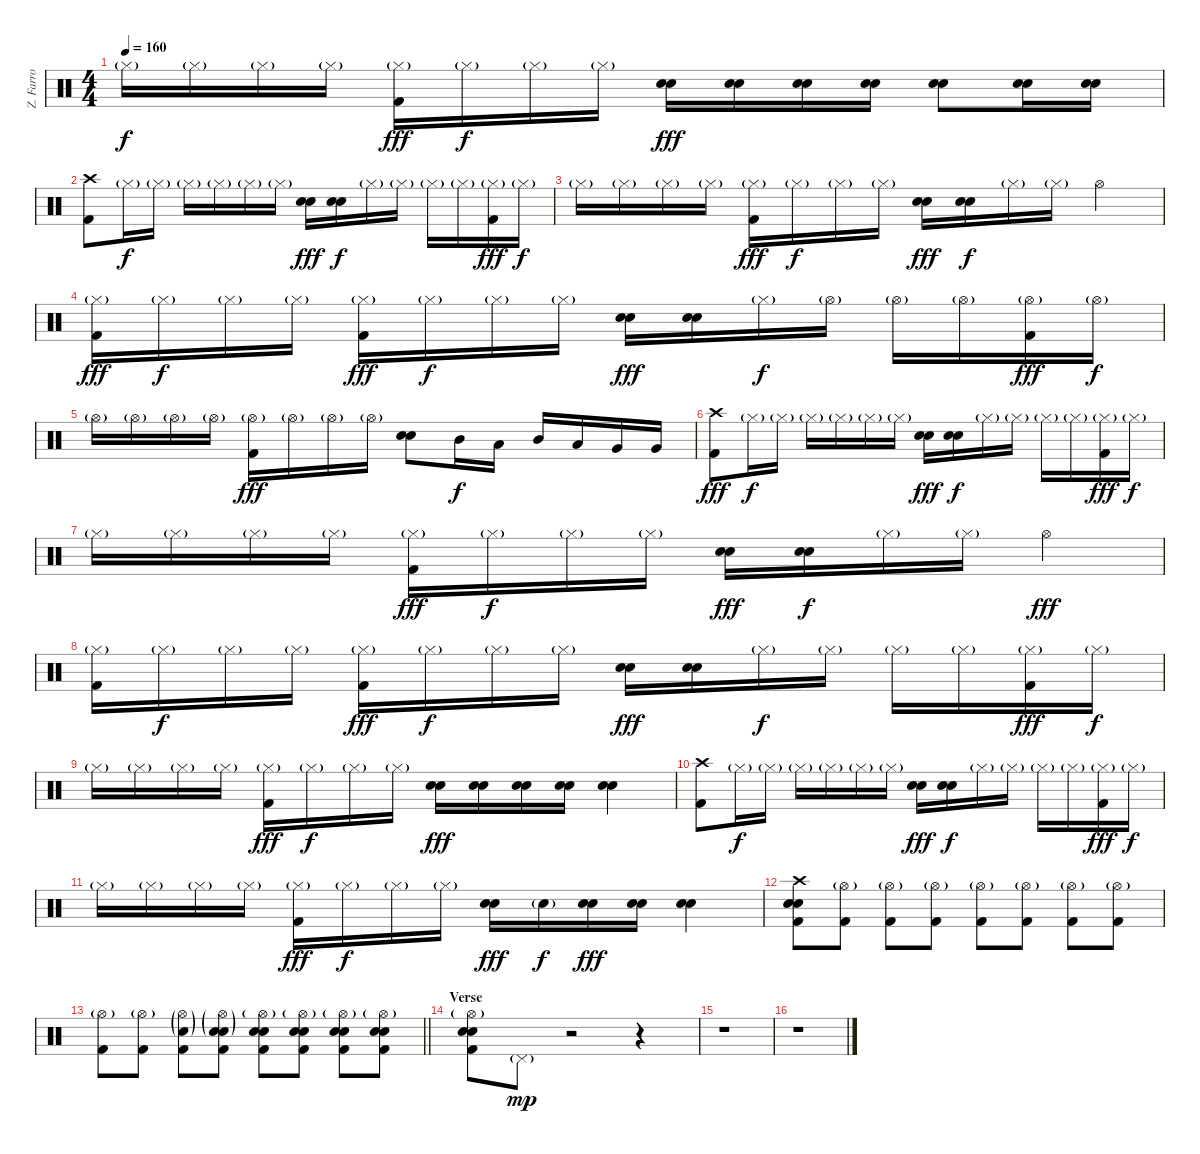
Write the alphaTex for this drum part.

\track ("Z. Farro" "Z. Farro") {instrument percussion}
\staff {score}
\articulation defaults
\ts (4 4)
\tempo 160
\clef neutral
\ks c "Hi-Hat (closed)"{g}.16{dy f} "Hi-Hat (closed)"{g}.16 "Hi-Hat (closed)"{g}.16 "Hi-Hat (closed)"{g}.16
("Hi-Hat (closed)"{g} "Kick (hit) 2").16{dy fff} "Hi-Hat (closed)"{g}.16{dy f} "Hi-Hat (closed)"{g}.16 "Hi-Hat (closed)"{g}.16 ("Electric Snare (hit)" "Electric Snare (hit)").16{dy fff} ("Electric Snare (hit)" "Electric Snare (hit)").16 ("Electric Snare (hit)" "Electric Snare (hit)").16 ("Electric Snare (hit)" "Electric Snare (hit)").16 ("Electric Snare (hit)" "Electric Snare (hit)").8 ("Electric Snare (hit)" "Electric Snare (hit)").16 ("Electric Snare (hit)" "Electric Snare (hit)").16 |
("Crash high (hit)" "Kick (hit) 2").8 "Hi-Hat (closed)"{g}.16{dy f} "Hi-Hat (closed)"{g}.16 "Hi-Hat (closed)"{g}.16 "Hi-Hat (closed)"{g}.16 "Hi-Hat (closed)"{g}.16 "Hi-Hat (closed)"{g}.16 ("Electric Snare (hit)" "Electric Snare (hit)").16{dy fff} ("Electric Snare (hit)" "Electric Snare (hit)").16{dy f} "Hi-Hat (closed)"{g}.16 "Hi-Hat (closed)"{g}.16 "Hi-Hat (closed)"{g}.16 "Hi-Hat (closed)"{g}.16 ("Hi-Hat (closed)"{g} "Kick (hit) 2").16{dy fff} "Hi-Hat (closed)"{g}.16{dy f} |
"Hi-Hat (closed)"{g}.16 "Hi-Hat (closed)"{g}.16 "Hi-Hat (closed)"{g}.16 "Hi-Hat (closed)"{g}.16 ("Hi-Hat (closed)"{g} "Kick (hit) 2").16{dy fff} "Hi-Hat (closed)"{g}.16{dy f} "Hi-Hat (closed)"{g}.16 "Hi-Hat (closed)"{g}.16 ("Electric Snare (hit)" "Electric Snare (hit)").16{dy fff} ("Electric Snare (hit)" "Electric Snare (hit)").16{dy f} "Hi-Hat (closed)"{g}.16 "Hi-Hat (closed)"{g}.16 "Hi-Hat (open)".4 |
("Hi-Hat (closed)"{g} "Kick (hit) 2").16{dy fff} "Hi-Hat (closed)"{g}.16{dy f} "Hi-Hat (closed)"{g}.16 "Hi-Hat (closed)"{g}.16 ("Hi-Hat (closed)"{g} "Kick (hit) 2").16{dy fff} "Hi-Hat (closed)"{g}.16{dy f} "Hi-Hat (closed)"{g}.16 "Hi-Hat (closed)"{g}.16 ("Electric Snare (hit)" "Electric Snare (hit)").16{dy fff} ("Electric Snare (hit)" "Electric Snare (hit)").16 "Hi-Hat (closed)"{g}.16{dy f} "Hi-Hat (open)"{g}.16 "Hi-Hat (open)"{g}.16 "Hi-Hat (open)"{g}.16 ("Hi-Hat (open)"{g} "Kick (hit) 2").16{dy fff} "Hi-Hat (open)"{g}.16{dy f} |
"Hi-Hat (open)"{g}.16 "Hi-Hat (open)"{g}.16 "Hi-Hat (open)"{g}.16 "Hi-Hat (open)"{g}.16 ("Hi-Hat (open)"{g} "Kick (hit) 2").16{dy fff} "Hi-Hat (open)"{g}.16 "Hi-Hat (open)"{g}.16 "Hi-Hat (open)"{g}.16 ("Electric Snare (hit)" "Electric Snare (hit)").8 "Mid Tom (hit)".16{dy f} "Low Tom (hit)".16 "Mid Tom (hit)".16 "Low Tom (hit)".16 "Very Low Tom (hit)".16 "Very Low Tom (hit)".16 |
("Crash high (hit)" "Kick (hit) 2").8{dy fff} "Hi-Hat (closed)"{g}.16{dy f} "Hi-Hat (closed)"{g}.16 "Hi-Hat (closed)"{g}.16 "Hi-Hat (closed)"{g}.16 "Hi-Hat (closed)"{g}.16 "Hi-Hat (closed)"{g}.16 ("Electric Snare (hit)" "Electric Snare (hit)").16{dy fff} ("Electric Snare (hit)" "Electric Snare (hit)").16{dy f} "Hi-Hat (closed)"{g}.16 "Hi-Hat (closed)"{g}.16 "Hi-Hat (closed)"{g}.16 "Hi-Hat (closed)"{g}.16 ("Hi-Hat (closed)"{g} "Kick (hit) 2").16{dy fff} "Hi-Hat (closed)"{g}.16{dy f} |
"Hi-Hat (closed)"{g}.16 "Hi-Hat (closed)"{g}.16 "Hi-Hat (closed)"{g}.16 "Hi-Hat (closed)"{g}.16 ("Hi-Hat (closed)"{g} "Kick (hit) 2").16{dy fff} "Hi-Hat (closed)"{g}.16{dy f} "Hi-Hat (closed)"{g}.16 "Hi-Hat (closed)"{g}.16 ("Electric Snare (hit)" "Electric Snare (hit)").16{dy fff} ("Electric Snare (hit)" "Electric Snare (hit)").16{dy f} "Hi-Hat (closed)"{g}.16 "Hi-Hat (closed)"{g}.16 "Hi-Hat (open)".4{dy fff} |
("Hi-Hat (closed)"{g} "Kick (hit) 2").16 "Hi-Hat (closed)"{g}.16{dy f} "Hi-Hat (closed)"{g}.16 "Hi-Hat (closed)"{g}.16 ("Hi-Hat (closed)"{g} "Kick (hit) 2").16{dy fff} "Hi-Hat (closed)"{g}.16{dy f} "Hi-Hat (closed)"{g}.16 "Hi-Hat (closed)"{g}.16 ("Electric Snare (hit)" "Electric Snare (hit)").16{dy fff} ("Electric Snare (hit)" "Electric Snare (hit)").16 "Hi-Hat (closed)"{g}.16{dy f} "Hi-Hat (closed)"{g}.16 "Hi-Hat (closed)"{g}.16 "Hi-Hat (closed)"{g}.16 ("Hi-Hat (closed)"{g} "Kick (hit) 2").16{dy fff} "Hi-Hat (closed)"{g}.16{dy f} |
"Hi-Hat (closed)"{g}.16 "Hi-Hat (closed)"{g}.16 "Hi-Hat (closed)"{g}.16 "Hi-Hat (closed)"{g}.16 ("Hi-Hat (closed)"{g} "Kick (hit) 2").16{dy fff} "Hi-Hat (closed)"{g}.16{dy f} "Hi-Hat (closed)"{g}.16 "Hi-Hat (closed)"{g}.16 ("Electric Snare (hit)" "Electric Snare (hit)").16{dy fff} ("Electric Snare (hit)" "Electric Snare (hit)").16 ("Electric Snare (hit)" "Electric Snare (hit)").16 ("Electric Snare (hit)" "Electric Snare (hit)").16 ("Electric Snare (hit)" "Electric Snare (hit)").4 |
("Crash high (hit)" "Kick (hit) 2").8 "Hi-Hat (closed)"{g}.16{dy f} "Hi-Hat (closed)"{g}.16 "Hi-Hat (closed)"{g}.16 "Hi-Hat (closed)"{g}.16 "Hi-Hat (closed)"{g}.16 "Hi-Hat (closed)"{g}.16 ("Electric Snare (hit)" "Electric Snare (hit)").16{dy fff} ("Electric Snare (hit)" "Electric Snare (hit)").16{dy f} "Hi-Hat (closed)"{g}.16 "Hi-Hat (closed)"{g}.16 "Hi-Hat (closed)"{g}.16 "Hi-Hat (closed)"{g}.16 ("Hi-Hat (closed)"{g} "Kick (hit) 2").16{dy fff} "Hi-Hat (closed)"{g}.16{dy f} |
"Hi-Hat (closed)"{g}.16 "Hi-Hat (closed)"{g}.16 "Hi-Hat (closed)"{g}.16 "Hi-Hat (closed)"{g}.16 ("Hi-Hat (closed)"{g} "Kick (hit) 2").16{dy fff} "Hi-Hat (closed)"{g}.16{dy f} "Hi-Hat (closed)"{g}.16 "Hi-Hat (closed)"{g}.16 ("Electric Snare (hit)" "Electric Snare (hit)").16{dy fff} "Electric Snare (hit)"{g}.16{dy f} ("Electric Snare (hit)" "Electric Snare (hit)").16{dy fff} ("Electric Snare (hit)" "Electric Snare (hit)").16 ("Electric Snare (hit)" "Electric Snare (hit)").4 |
("Crash high (hit)" "Electric Snare (hit)" "Electric Snare (hit)" "Kick (hit) 2").8 ("Hi-Hat (open)"{g} "Kick (hit) 2").8 ("Hi-Hat (open)"{g} "Kick (hit) 2").8 ("Hi-Hat (open)"{g} "Kick (hit) 2").8 ("Hi-Hat (open)"{g} "Kick (hit) 2").8 ("Hi-Hat (open)"{g} "Kick (hit) 2").8 ("Hi-Hat (open)"{g} "Kick (hit) 2").8 ("Hi-Hat (open)"{g} "Kick (hit) 2").8 |
\barLineRight lightlight
("Hi-Hat (open)"{g} "Kick (hit) 2").8 ("Hi-Hat (open)"{g} "Kick (hit) 2").8 ("Hi-Hat (open)"{g} "Electric Snare (hit)"{g} "Kick (hit) 2").8 ("Hi-Hat (open)"{g} "Electric Snare (hit)"{g} "Electric Snare (hit)"{g} "Kick (hit) 2").8 ("Hi-Hat (open)"{g} "Electric Snare (hit)" "Electric Snare (hit)" "Kick (hit) 2").8 ("Hi-Hat (open)"{g} "Electric Snare (hit)" "Electric Snare (hit)" "Kick (hit) 2").8 ("Hi-Hat (open)"{g} "Electric Snare (hit)" "Electric Snare (hit)" "Kick (hit) 2").8 ("Hi-Hat (open)"{g} "Electric Snare (hit)" "Electric Snare (hit)" "Kick (hit) 2").8 |
\section ("" "Verse")
("Hi-Hat (open)"{g} "Electric Snare (hit)" "Electric Snare (hit)" "Kick (hit) 2").8 "Pedal Hi-Hat (hit)"{g}.8{dy mp} r.2 r.4 |
r.1 |
r.1
